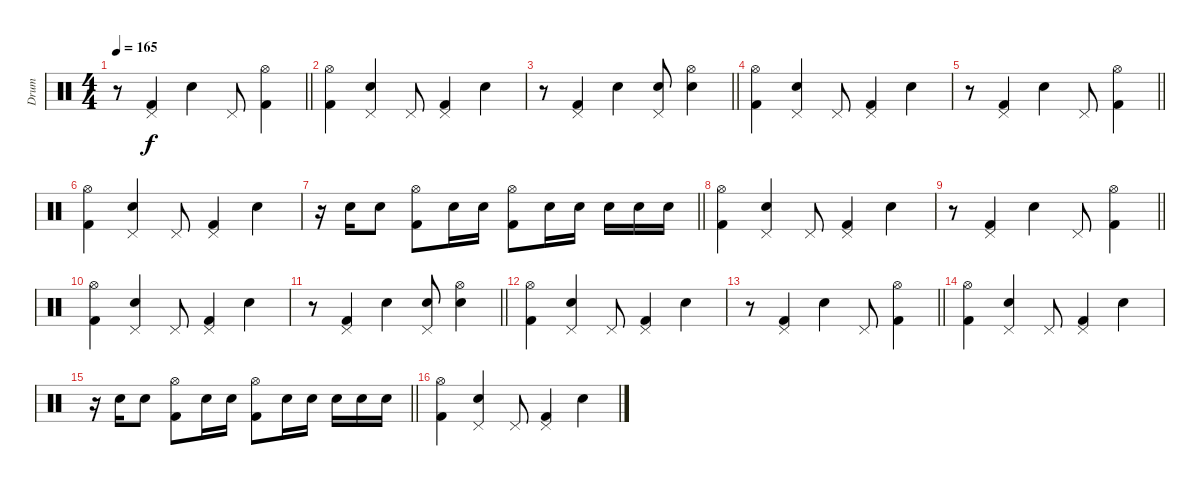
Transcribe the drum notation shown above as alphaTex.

\track ("Drum" "Drum") {instrument percussion}
\staff {score}
\articulation defaults
\ts (4 4)
\tempo 165
\clef neutral
\barLineRight lightlight
\ks c
r.8{dy f} ("Kick (hit) 2" "Pedal Hi-Hat (hit)").4 "Electric Snare (hit)".4 "Pedal Hi-Hat (hit)".8 ("Kick (hit) 2" "Hi-Hat (open)").4 |
("Kick (hit) 2" "Hi-Hat (open)").4 ("Electric Snare (hit)" "Pedal Hi-Hat (hit)").4 "Pedal Hi-Hat (hit)".8 ("Kick (hit) 2" "Pedal Hi-Hat (hit)").4 "Electric Snare (hit)".4 |
\barLineRight lightlight
r.8 ("Kick (hit) 2" "Pedal Hi-Hat (hit)").4 "Electric Snare (hit)".4 ("Electric Snare (hit)" "Pedal Hi-Hat (hit)").8 ("Electric Snare (hit)" "Hi-Hat (open)").4 |
("Kick (hit) 2" "Hi-Hat (open)").4 ("Electric Snare (hit)" "Pedal Hi-Hat (hit)").4 "Pedal Hi-Hat (hit)".8 ("Kick (hit) 2" "Pedal Hi-Hat (hit)").4 "Electric Snare (hit)".4 |
\barLineRight lightlight
r.8 ("Kick (hit) 2" "Pedal Hi-Hat (hit)").4 "Electric Snare (hit)".4 "Pedal Hi-Hat (hit)".8 ("Kick (hit) 2" "Hi-Hat (open)").4 |
("Kick (hit) 2" "Hi-Hat (open)").4 ("Electric Snare (hit)" "Pedal Hi-Hat (hit)").4 "Pedal Hi-Hat (hit)".8 ("Kick (hit) 2" "Pedal Hi-Hat (hit)").4 "Electric Snare (hit)".4 |
\barLineRight lightlight
r.16 "Electric Snare (hit)".16 "Electric Snare (hit)".8 ("Kick (hit) 2" "Hi-Hat (open)").8 "Electric Snare (hit)".16 "Electric Snare (hit)".16 ("Kick (hit) 2" "Hi-Hat (open)").8 "Electric Snare (hit)".16 "Electric Snare (hit)".16 "Electric Snare (hit)".16 "Electric Snare (hit)".16 "Electric Snare (hit)".16 |
("Kick (hit) 2" "Hi-Hat (open)").4 ("Electric Snare (hit)" "Pedal Hi-Hat (hit)").4 "Pedal Hi-Hat (hit)".8 ("Kick (hit) 2" "Pedal Hi-Hat (hit)").4 "Electric Snare (hit)".4 |
\barLineRight lightlight
r.8 ("Kick (hit) 2" "Pedal Hi-Hat (hit)").4 "Electric Snare (hit)".4 "Pedal Hi-Hat (hit)".8 ("Kick (hit) 2" "Hi-Hat (open)").4 |
("Kick (hit) 2" "Hi-Hat (open)").4 ("Electric Snare (hit)" "Pedal Hi-Hat (hit)").4 "Pedal Hi-Hat (hit)".8 ("Kick (hit) 2" "Pedal Hi-Hat (hit)").4 "Electric Snare (hit)".4 |
\barLineRight lightlight
r.8 ("Kick (hit) 2" "Pedal Hi-Hat (hit)").4 "Electric Snare (hit)".4 ("Electric Snare (hit)" "Pedal Hi-Hat (hit)").8 ("Electric Snare (hit)" "Hi-Hat (open)").4 |
("Kick (hit) 2" "Hi-Hat (open)").4 ("Electric Snare (hit)" "Pedal Hi-Hat (hit)").4 "Pedal Hi-Hat (hit)".8 ("Kick (hit) 2" "Pedal Hi-Hat (hit)").4 "Electric Snare (hit)".4 |
\barLineRight lightlight
r.8 ("Kick (hit) 2" "Pedal Hi-Hat (hit)").4 "Electric Snare (hit)".4 "Pedal Hi-Hat (hit)".8 ("Kick (hit) 2" "Hi-Hat (open)").4 |
("Kick (hit) 2" "Hi-Hat (open)").4 ("Electric Snare (hit)" "Pedal Hi-Hat (hit)").4 "Pedal Hi-Hat (hit)".8 ("Kick (hit) 2" "Pedal Hi-Hat (hit)").4 "Electric Snare (hit)".4 |
\barLineRight lightlight
r.16 "Electric Snare (hit)".16 "Electric Snare (hit)".8 ("Kick (hit) 2" "Hi-Hat (open)").8 "Electric Snare (hit)".16 "Electric Snare (hit)".16 ("Kick (hit) 2" "Hi-Hat (open)").8 "Electric Snare (hit)".16 "Electric Snare (hit)".16 "Electric Snare (hit)".16 "Electric Snare (hit)".16 "Electric Snare (hit)".16 |
("Kick (hit) 2" "Hi-Hat (open)").4 ("Electric Snare (hit)" "Pedal Hi-Hat (hit)").4 "Pedal Hi-Hat (hit)".8 ("Kick (hit) 2" "Pedal Hi-Hat (hit)").4 "Electric Snare (hit)".4
